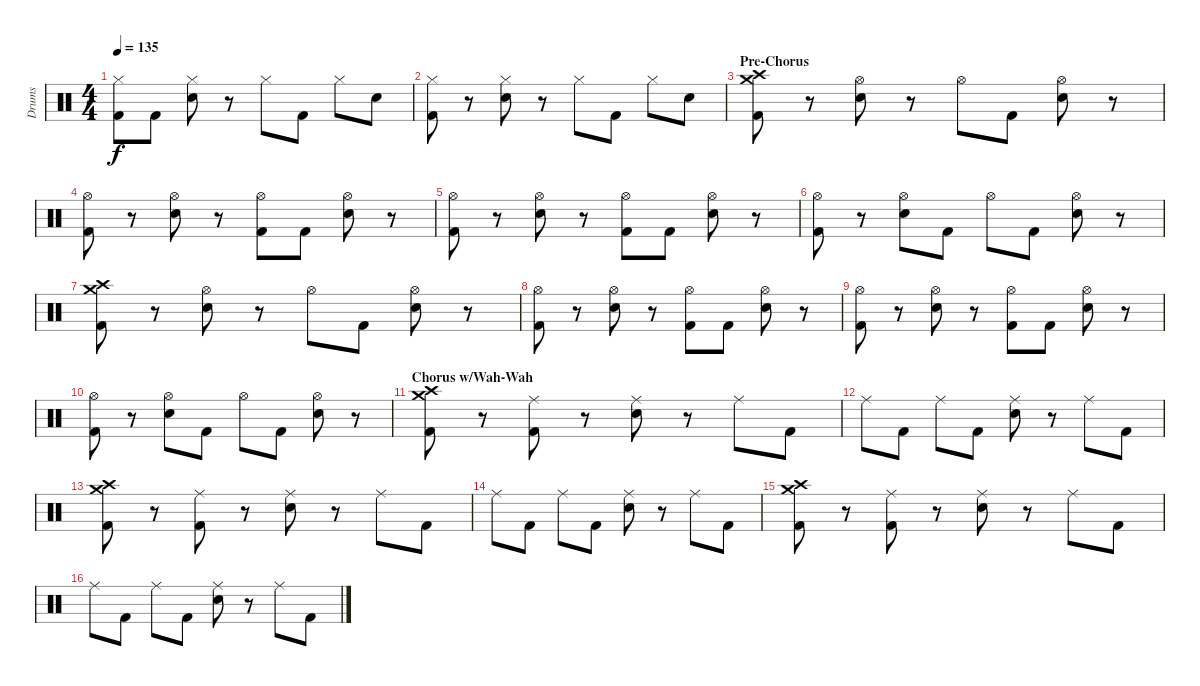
\track ("Drums" "Drums") {instrument percussion}
\staff {score}
\articulation defaults
\ts (4 4)
\tempo 135
\clef neutral
\ks c
("Hi-Hat (closed)" "Kick (hit) 2").8{dy f} "Kick (hit) 2".8 ("Hi-Hat (closed)" "Snare (hit) 2").8 r.8 "Hi-Hat (closed)".8 "Kick (hit) 2".8 "Hi-Hat (closed)".8 "Snare (hit) 2".8 |
("Hi-Hat (closed)" "Kick (hit) 2").8 r.8 ("Hi-Hat (closed)" "Snare (hit) 2").8 r.8 "Hi-Hat (closed)".8 "Kick (hit) 2".8 "Hi-Hat (closed)".8 "Snare (hit) 2".8 |
\section ("" "Pre-Chorus")
("Crash medium (hit)" "Crash high (hit)" "Kick (hit) 2").8 r.8 ("Hi-Hat (open)" "Snare (hit) 2").8 r.8 "Hi-Hat (open)".8 "Kick (hit) 2".8 ("Hi-Hat (open)" "Snare (hit) 2").8 r.8 |
("Hi-Hat (open)" "Kick (hit) 2").8 r.8 ("Hi-Hat (open)" "Snare (hit) 2").8 r.8 ("Hi-Hat (open)" "Kick (hit) 2").8 "Kick (hit) 2".8 ("Hi-Hat (open)" "Snare (hit) 2").8 r.8 |
("Hi-Hat (open)" "Kick (hit) 2").8 r.8 ("Hi-Hat (open)" "Snare (hit) 2").8 r.8 ("Hi-Hat (open)" "Kick (hit) 2").8 "Kick (hit) 2".8 ("Hi-Hat (open)" "Snare (hit) 2").8 r.8 |
("Hi-Hat (open)" "Kick (hit) 2").8 r.8 ("Hi-Hat (open)" "Snare (hit) 2").8 "Kick (hit) 2".8 "Hi-Hat (open)".8 "Kick (hit) 2".8 ("Hi-Hat (open)" "Snare (hit) 2").8 r.8 |
("Crash medium (hit)" "Crash high (hit)" "Kick (hit) 2").8 r.8 ("Hi-Hat (open)" "Snare (hit) 2").8 r.8 "Hi-Hat (open)".8 "Kick (hit) 2".8 ("Hi-Hat (open)" "Snare (hit) 2").8 r.8 |
("Hi-Hat (open)" "Kick (hit) 2").8 r.8 ("Hi-Hat (open)" "Snare (hit) 2").8 r.8 ("Hi-Hat (open)" "Kick (hit) 2").8 "Kick (hit) 2".8 ("Hi-Hat (open)" "Snare (hit) 2").8 r.8 |
("Hi-Hat (open)" "Kick (hit) 2").8 r.8 ("Hi-Hat (open)" "Snare (hit) 2").8 r.8 ("Hi-Hat (open)" "Kick (hit) 2").8 "Kick (hit) 2".8 ("Hi-Hat (open)" "Snare (hit) 2").8 r.8 |
("Hi-Hat (open)" "Kick (hit) 2").8 r.8 ("Hi-Hat (open)" "Snare (hit) 2").8 "Kick (hit) 2".8 "Hi-Hat (open)".8 "Kick (hit) 2".8 ("Hi-Hat (open)" "Snare (hit) 2").8 r.8 |
\section ("" "Chorus w/Wah-Wah")
("Crash medium (hit)" "Crash high (hit)" "Kick (hit) 2").8 r.8 ("Ride (middle)" "Kick (hit) 2").8 r.8 ("Ride (middle)" "Snare (hit) 2").8 r.8 "Ride (middle)".8 "Kick (hit) 2".8 |
"Ride (middle)".8 "Kick (hit) 2".8 "Ride (middle)".8 "Kick (hit) 2".8 ("Ride (middle)" "Snare (hit) 2").8 r.8 "Ride (middle)".8 "Kick (hit) 2".8 |
("Crash medium (hit)" "Crash high (hit)" "Kick (hit) 2").8 r.8 ("Ride (middle)" "Kick (hit) 2").8 r.8 ("Ride (middle)" "Snare (hit) 2").8 r.8 "Ride (middle)".8 "Kick (hit) 2".8 |
"Ride (middle)".8 "Kick (hit) 2".8 "Ride (middle)".8 "Kick (hit) 2".8 ("Ride (middle)" "Snare (hit) 2").8 r.8 "Ride (middle)".8 "Kick (hit) 2".8 |
("Crash medium (hit)" "Crash high (hit)" "Kick (hit) 2").8 r.8 ("Ride (middle)" "Kick (hit) 2").8 r.8 ("Ride (middle)" "Snare (hit) 2").8 r.8 "Ride (middle)".8 "Kick (hit) 2".8 |
"Ride (middle)".8 "Kick (hit) 2".8 "Ride (middle)".8 "Kick (hit) 2".8 ("Ride (middle)" "Snare (hit) 2").8 r.8 "Ride (middle)".8 "Kick (hit) 2".8
